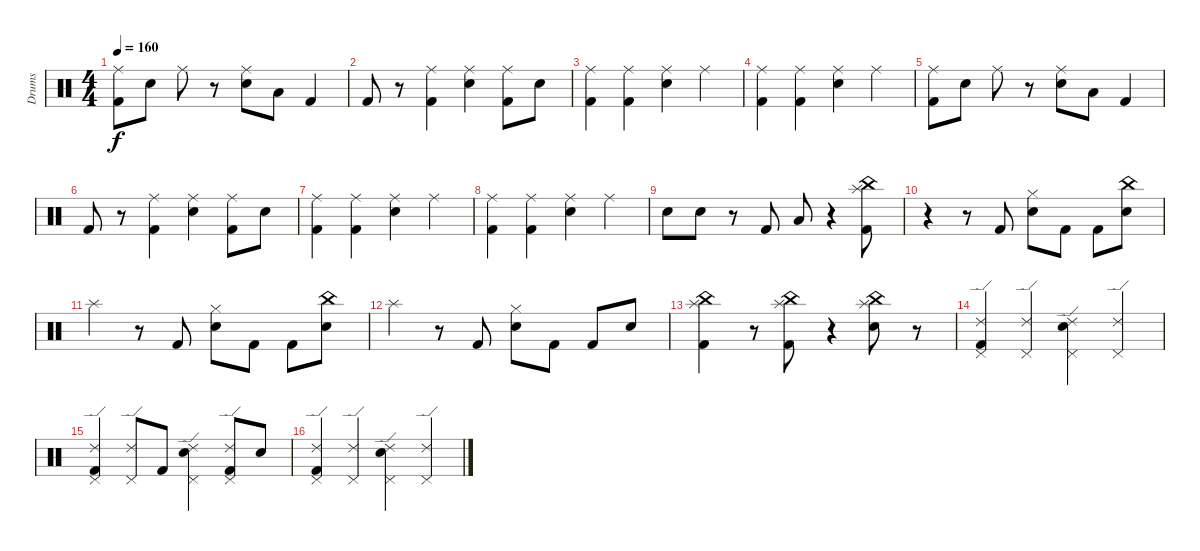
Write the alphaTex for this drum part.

\track ("Drums" "Drums") {instrument percussion}
\staff {score}
\articulation defaults
\ts (4 4)
\tempo 160
\clef neutral
\ks c
("Ride (middle)" "Kick (hit) 2").8{dy f} "Snare (hit) 2".8 "Ride (middle)".8 r.8 ("Ride (middle)" "Snare (hit) 2").8 "Low Tom (hit)".8 "Kick (hit) 2".4 |
"Kick (hit) 2".8 r.8 ("Ride (middle)" "Kick (hit) 2").4 ("Ride (middle)" "Snare (hit) 2").4 ("Ride (middle)" "Kick (hit) 2").8 "Snare (hit) 2".8 |
("Ride (middle)" "Kick (hit) 2").4 ("Ride (middle)" "Kick (hit) 2").4 ("Ride (middle)" "Snare (hit) 2").4 "Ride (middle)".4 |
("Ride (middle)" "Kick (hit) 2").4 ("Ride (middle)" "Kick (hit) 2").4 ("Ride (middle)" "Snare (hit) 2").4 "Ride (middle)".4 |
("Ride (middle)" "Kick (hit) 2").8 "Snare (hit) 2".8 "Ride (middle)".8 r.8 ("Ride (middle)" "Snare (hit) 2").8 "Low Tom (hit)".8 "Kick (hit) 2".4 |
"Kick (hit) 2".8 r.8 ("Ride (middle)" "Kick (hit) 2").4 ("Ride (middle)" "Snare (hit) 2").4 ("Ride (middle)" "Kick (hit) 2").8 "Snare (hit) 2".8 |
("Ride (middle)" "Kick (hit) 2").4 ("Ride (middle)" "Kick (hit) 2").4 ("Ride (middle)" "Snare (hit) 2").4 "Ride (middle)".4 |
("Ride (middle)" "Kick (hit) 2").4 ("Ride (middle)" "Kick (hit) 2").4 ("Ride (middle)" "Snare (hit) 2").4 "Ride (middle)".4 |
"Snare (hit) 2".8 "Snare (hit) 2".8 r.8 "Kick (hit) 2".8 "Low Tom (hit)".8 r.4 ("Splash (hit)" "Kick (hit) 2" "China (hit)").8 |
r.4 r.8 "Kick (hit) 2".8 ("Hi-Hat (closed)" "Snare (hit) 2").8 "Kick (hit) 2".8 "Kick (hit) 2".8 ("Snare (hit) 2" "China (hit)").8 |
"Splash (hit)".4 r.8 "Kick (hit) 2".8 ("Hi-Hat (closed)" "Snare (hit) 2").8 "Kick (hit) 2".8 "Kick (hit) 2".8 ("Snare (hit) 2" "China (hit)").8 |
"Splash (hit)".4 r.8 "Kick (hit) 2".8 ("Hi-Hat (closed)" "Snare (hit) 2").8 "Kick (hit) 2".8 "Kick (hit) 2".8 "Snare (hit) 2".8 |
("Splash (hit)" "Kick (hit) 2" "China (hit)").4 r.8 ("Splash (hit)" "Kick (hit) 2" "China (hit)").8 r.4 ("Splash (hit)" "Snare (hit) 2" "China (hit)").8 r.8 |
("Pedal Hi-Hat (hit)" "Kick (hit) 2" "Ride (edge) 2").4 ("Pedal Hi-Hat (hit)" "Ride (edge) 2").4 ("Pedal Hi-Hat (hit)" "Snare (hit) 2" "Ride (edge) 2").4 ("Pedal Hi-Hat (hit)" "Ride (edge) 2").4 |
("Pedal Hi-Hat (hit)" "Kick (hit) 2" "Ride (edge) 2").4 ("Pedal Hi-Hat (hit)" "Ride (edge) 2").8 "Kick (hit) 2".8 ("Pedal Hi-Hat (hit)" "Snare (hit) 2" "Ride (edge) 2").4 ("Pedal Hi-Hat (hit)" "Kick (hit) 2" "Ride (edge) 2").8 "Snare (hit) 2".8 |
("Pedal Hi-Hat (hit)" "Kick (hit) 2" "Ride (edge) 2").4 ("Pedal Hi-Hat (hit)" "Ride (edge) 2").4 ("Pedal Hi-Hat (hit)" "Snare (hit) 2" "Ride (edge) 2").4 ("Pedal Hi-Hat (hit)" "Ride (edge) 2").4
